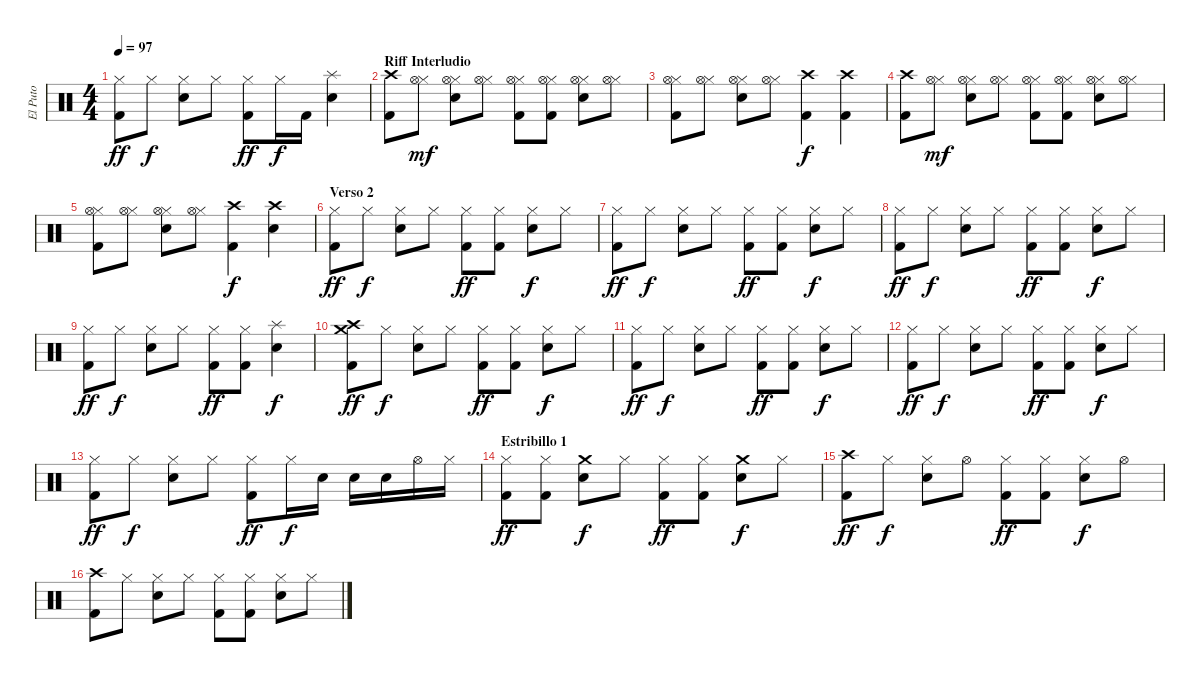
\track ("El Puto" "El Puto") {instrument percussion}
\staff {score}
\articulation defaults
\ts (4 4)
\tempo 97
\clef neutral
\ks c
("Hi-Hat (closed)" "Kick (hit) 2").8{dy ff} "Hi-Hat (closed)".8{dy f} ("Hi-Hat (closed)" "Snare (hit) 2").8 "Hi-Hat (closed)".8 ("Hi-Hat (closed)" "Kick (hit) 2").8{dy ff} "Hi-Hat (closed)".16{dy f} "Kick (hit) 2".16 ("Splash (hit)" "Snare (hit) 2").4 |
\section ("" "Riff Interludio")
("Crash high (hit)" "Kick (hit) 2").8 ("Hi-Hat (closed)" "Hi-Hat (open)").8{dy mf} ("Hi-Hat (closed)" "Hi-Hat (open)" "Snare (hit) 2").8 ("Hi-Hat (closed)" "Hi-Hat (open)").8 ("Hi-Hat (closed)" "Hi-Hat (open)" "Kick (hit) 2").8 ("Hi-Hat (closed)" "Hi-Hat (open)" "Kick (hit) 2").8 ("Hi-Hat (closed)" "Hi-Hat (open)" "Snare (hit) 2").8 ("Hi-Hat (closed)" "Hi-Hat (open)").8 |
("Hi-Hat (closed)" "Hi-Hat (open)" "Kick (hit) 2").8 ("Hi-Hat (closed)" "Hi-Hat (open)").8 ("Hi-Hat (closed)" "Hi-Hat (open)" "Snare (hit) 2").8 ("Hi-Hat (closed)" "Hi-Hat (open)").8 ("Crash high (hit)" "Kick (hit) 2").4{dy f} ("Crash high (hit)" "Kick (hit) 2").4 |
("Crash high (hit)" "Kick (hit) 2").8 ("Hi-Hat (closed)" "Hi-Hat (open)").8{dy mf} ("Hi-Hat (closed)" "Hi-Hat (open)" "Snare (hit) 2").8 ("Hi-Hat (closed)" "Hi-Hat (open)").8 ("Hi-Hat (closed)" "Hi-Hat (open)" "Kick (hit) 2").8 ("Hi-Hat (closed)" "Hi-Hat (open)" "Kick (hit) 2").8 ("Hi-Hat (closed)" "Hi-Hat (open)" "Snare (hit) 2").8 ("Hi-Hat (closed)" "Hi-Hat (open)").8 |
("Hi-Hat (closed)" "Hi-Hat (open)" "Kick (hit) 2").8 ("Hi-Hat (closed)" "Hi-Hat (open)").8 ("Hi-Hat (closed)" "Hi-Hat (open)" "Snare (hit) 2").8 ("Hi-Hat (closed)" "Hi-Hat (open)").8 ("Crash high (hit)" "Kick (hit) 2").4{dy f} ("Crash high (hit)" "Snare (hit) 2").4 |
\section ("" "Verso 2")
("Hi-Hat (closed)" "Kick (hit) 2").8{dy ff} "Hi-Hat (closed)".8{dy f} ("Hi-Hat (closed)" "Snare (hit) 2").8 "Hi-Hat (closed)".8 ("Hi-Hat (closed)" "Kick (hit) 2").8{dy ff} ("Hi-Hat (closed)" "Kick (hit) 2").8 ("Hi-Hat (closed)" "Snare (hit) 2").8{dy f} "Hi-Hat (closed)".8 |
("Hi-Hat (closed)" "Kick (hit) 2").8{dy ff} "Hi-Hat (closed)".8{dy f} ("Hi-Hat (closed)" "Snare (hit) 2").8 "Hi-Hat (closed)".8 ("Hi-Hat (closed)" "Kick (hit) 2").8{dy ff} ("Hi-Hat (closed)" "Kick (hit) 2").8 ("Hi-Hat (closed)" "Snare (hit) 2").8{dy f} "Hi-Hat (closed)".8 |
("Hi-Hat (closed)" "Kick (hit) 2").8{dy ff} "Hi-Hat (closed)".8{dy f} ("Hi-Hat (closed)" "Snare (hit) 2").8 "Hi-Hat (closed)".8 ("Hi-Hat (closed)" "Kick (hit) 2").8{dy ff} ("Hi-Hat (closed)" "Kick (hit) 2").8 ("Hi-Hat (closed)" "Snare (hit) 2").8{dy f} "Hi-Hat (closed)".8 |
("Hi-Hat (closed)" "Kick (hit) 2").8{dy ff} "Hi-Hat (closed)".8{dy f} ("Hi-Hat (closed)" "Snare (hit) 2").8 "Hi-Hat (closed)".8 ("Hi-Hat (closed)" "Kick (hit) 2").8{dy ff} ("Hi-Hat (closed)" "Kick (hit) 2").8 ("Splash (hit)" "Snare (hit) 2").4{dy f} |
("Crash high (hit)" "Crash medium (hit)" "Kick (hit) 2").8{dy ff} "Hi-Hat (closed)".8{dy f} ("Hi-Hat (closed)" "Snare (hit) 2").8 "Hi-Hat (closed)".8 ("Hi-Hat (closed)" "Kick (hit) 2").8{dy ff} ("Hi-Hat (closed)" "Kick (hit) 2").8 ("Hi-Hat (closed)" "Snare (hit) 2").8{dy f} "Hi-Hat (closed)".8 |
("Hi-Hat (closed)" "Kick (hit) 2").8{dy ff} "Hi-Hat (closed)".8{dy f} ("Hi-Hat (closed)" "Snare (hit) 2").8 "Hi-Hat (closed)".8 ("Hi-Hat (closed)" "Kick (hit) 2").8{dy ff} ("Hi-Hat (closed)" "Kick (hit) 2").8 ("Hi-Hat (closed)" "Snare (hit) 2").8{dy f} "Hi-Hat (closed)".8 |
("Hi-Hat (closed)" "Kick (hit) 2").8{dy ff} "Hi-Hat (closed)".8{dy f} ("Hi-Hat (closed)" "Snare (hit) 2").8 "Hi-Hat (closed)".8 ("Hi-Hat (closed)" "Kick (hit) 2").8{dy ff} ("Hi-Hat (closed)" "Kick (hit) 2").8 ("Hi-Hat (closed)" "Snare (hit) 2").8{dy f} "Hi-Hat (closed)".8 |
("Hi-Hat (closed)" "Kick (hit) 2").8{dy ff} "Hi-Hat (closed)".8{dy f} ("Hi-Hat (closed)" "Snare (hit) 2").8 "Hi-Hat (closed)".8 ("Hi-Hat (closed)" "Kick (hit) 2").8{dy ff} "Hi-Hat (closed)".16{dy f} "Snare (hit) 2".16 "Snare (hit) 2".16 "Snare (hit) 2".16 "Hi-Hat (open)".16 "Hi-Hat (closed)".16 |
\section ("" "Estribillo 1")
("Hi-Hat (closed)" "Kick (hit) 2").8{dy ff} ("Hi-Hat (closed)" "Kick (hit) 2").8 ("Crash medium (hit)" "Snare (hit) 2").8{dy f} "Hi-Hat (closed)".8 ("Hi-Hat (closed)" "Kick (hit) 2").8{dy ff} ("Hi-Hat (closed)" "Kick (hit) 2").8 ("Crash medium (hit)" "Snare (hit) 2").8{dy f} "Hi-Hat (closed)".8 |
("Crash high (hit)" "Kick (hit) 2").8{dy ff} "Hi-Hat (closed)".8{dy f} ("Hi-Hat (closed)" "Snare (hit) 2").8 "Hi-Hat (open)".8 ("Hi-Hat (closed)" "Kick (hit) 2").8{dy ff} ("Hi-Hat (closed)" "Kick (hit) 2").8 ("Hi-Hat (closed)" "Snare (hit) 2").8{dy f} "Hi-Hat (open)".8 |
("Crash high (hit)" "Kick (hit) 2").8 "Hi-Hat (closed)".8 ("Hi-Hat (closed)" "Snare (hit) 2").8 "Hi-Hat (closed)".8 ("Hi-Hat (closed)" "Kick (hit) 2").8 ("Hi-Hat (closed)" "Kick (hit) 2").8 ("Hi-Hat (closed)" "Snare (hit) 2").8 "Hi-Hat (closed)".8
